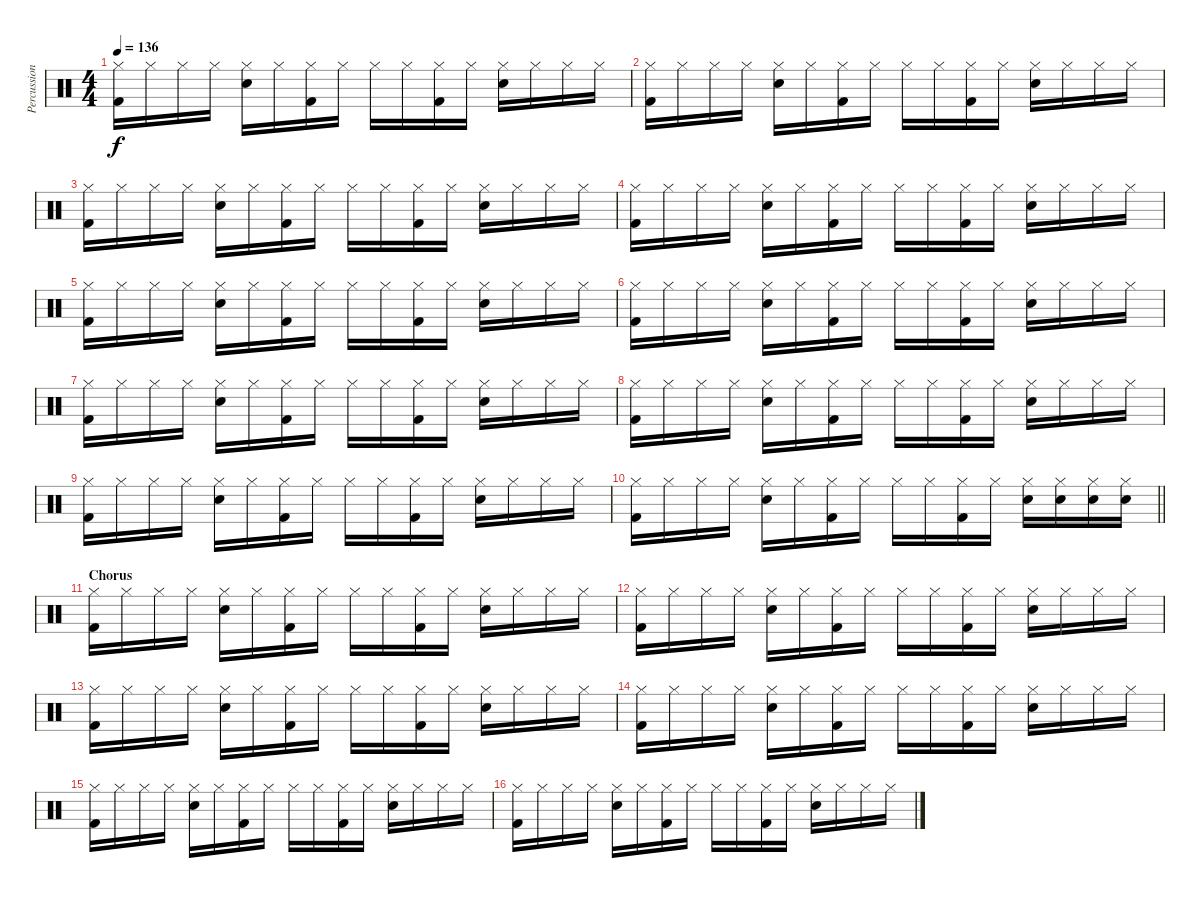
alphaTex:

\track ("Percussion" "Percussion") {instrument percussion}
\staff {score}
\articulation defaults
\ts (4 4)
\tempo 136
\clef neutral
\ks c
("Hi-Hat (closed)" "Kick (hit) 2").16{dy f} "Hi-Hat (closed)".16 "Hi-Hat (closed)".16 "Hi-Hat (closed)".16 ("Hi-Hat (closed)" "Electric Snare (hit)").16 "Hi-Hat (closed)".16 ("Hi-Hat (closed)" "Kick (hit) 2").16 "Hi-Hat (closed)".16 "Hi-Hat (closed)".16 "Hi-Hat (closed)".16 ("Hi-Hat (closed)" "Kick (hit) 2").16 "Hi-Hat (closed)".16 ("Hi-Hat (closed)" "Electric Snare (hit)").16 "Hi-Hat (closed)".16 "Hi-Hat (closed)".16 "Hi-Hat (closed)".16 |
("Hi-Hat (closed)" "Kick (hit) 2").16 "Hi-Hat (closed)".16 "Hi-Hat (closed)".16 "Hi-Hat (closed)".16 ("Hi-Hat (closed)" "Electric Snare (hit)").16 "Hi-Hat (closed)".16 ("Hi-Hat (closed)" "Kick (hit) 2").16 "Hi-Hat (closed)".16 "Hi-Hat (closed)".16 "Hi-Hat (closed)".16 ("Hi-Hat (closed)" "Kick (hit) 2").16 "Hi-Hat (closed)".16 ("Hi-Hat (closed)" "Electric Snare (hit)").16 "Hi-Hat (closed)".16 "Hi-Hat (closed)".16 "Hi-Hat (closed)".16 |
("Hi-Hat (closed)" "Kick (hit) 2").16 "Hi-Hat (closed)".16 "Hi-Hat (closed)".16 "Hi-Hat (closed)".16 ("Hi-Hat (closed)" "Electric Snare (hit)").16 "Hi-Hat (closed)".16 ("Hi-Hat (closed)" "Kick (hit) 2").16 "Hi-Hat (closed)".16 "Hi-Hat (closed)".16 "Hi-Hat (closed)".16 ("Hi-Hat (closed)" "Kick (hit) 2").16 "Hi-Hat (closed)".16 ("Hi-Hat (closed)" "Electric Snare (hit)").16 "Hi-Hat (closed)".16 "Hi-Hat (closed)".16 "Hi-Hat (closed)".16 |
("Hi-Hat (closed)" "Kick (hit) 2").16 "Hi-Hat (closed)".16 "Hi-Hat (closed)".16 "Hi-Hat (closed)".16 ("Hi-Hat (closed)" "Electric Snare (hit)").16 "Hi-Hat (closed)".16 ("Hi-Hat (closed)" "Kick (hit) 2").16 "Hi-Hat (closed)".16 "Hi-Hat (closed)".16 "Hi-Hat (closed)".16 ("Hi-Hat (closed)" "Kick (hit) 2").16 "Hi-Hat (closed)".16 ("Hi-Hat (closed)" "Electric Snare (hit)").16 "Hi-Hat (closed)".16 "Hi-Hat (closed)".16 "Hi-Hat (closed)".16 |
("Hi-Hat (closed)" "Kick (hit) 2").16 "Hi-Hat (closed)".16 "Hi-Hat (closed)".16 "Hi-Hat (closed)".16 ("Hi-Hat (closed)" "Electric Snare (hit)").16 "Hi-Hat (closed)".16 ("Hi-Hat (closed)" "Kick (hit) 2").16 "Hi-Hat (closed)".16 "Hi-Hat (closed)".16 "Hi-Hat (closed)".16 ("Hi-Hat (closed)" "Kick (hit) 2").16 "Hi-Hat (closed)".16 ("Hi-Hat (closed)" "Electric Snare (hit)").16 "Hi-Hat (closed)".16 "Hi-Hat (closed)".16 "Hi-Hat (closed)".16 |
("Hi-Hat (closed)" "Kick (hit) 2").16 "Hi-Hat (closed)".16 "Hi-Hat (closed)".16 "Hi-Hat (closed)".16 ("Hi-Hat (closed)" "Electric Snare (hit)").16 "Hi-Hat (closed)".16 ("Hi-Hat (closed)" "Kick (hit) 2").16 "Hi-Hat (closed)".16 "Hi-Hat (closed)".16 "Hi-Hat (closed)".16 ("Hi-Hat (closed)" "Kick (hit) 2").16 "Hi-Hat (closed)".16 ("Hi-Hat (closed)" "Electric Snare (hit)").16 "Hi-Hat (closed)".16 "Hi-Hat (closed)".16 "Hi-Hat (closed)".16 |
("Hi-Hat (closed)" "Kick (hit) 2").16 "Hi-Hat (closed)".16 "Hi-Hat (closed)".16 "Hi-Hat (closed)".16 ("Hi-Hat (closed)" "Electric Snare (hit)").16 "Hi-Hat (closed)".16 ("Hi-Hat (closed)" "Kick (hit) 2").16 "Hi-Hat (closed)".16 "Hi-Hat (closed)".16 "Hi-Hat (closed)".16 ("Hi-Hat (closed)" "Kick (hit) 2").16 "Hi-Hat (closed)".16 ("Hi-Hat (closed)" "Electric Snare (hit)").16 "Hi-Hat (closed)".16 "Hi-Hat (closed)".16 "Hi-Hat (closed)".16 |
("Hi-Hat (closed)" "Kick (hit) 2").16 "Hi-Hat (closed)".16 "Hi-Hat (closed)".16 "Hi-Hat (closed)".16 ("Hi-Hat (closed)" "Electric Snare (hit)").16 "Hi-Hat (closed)".16 ("Hi-Hat (closed)" "Kick (hit) 2").16 "Hi-Hat (closed)".16 "Hi-Hat (closed)".16 "Hi-Hat (closed)".16 ("Hi-Hat (closed)" "Kick (hit) 2").16 "Hi-Hat (closed)".16 ("Hi-Hat (closed)" "Electric Snare (hit)").16 "Hi-Hat (closed)".16 "Hi-Hat (closed)".16 "Hi-Hat (closed)".16 |
("Hi-Hat (closed)" "Kick (hit) 2").16 "Hi-Hat (closed)".16 "Hi-Hat (closed)".16 "Hi-Hat (closed)".16 ("Hi-Hat (closed)" "Electric Snare (hit)").16 "Hi-Hat (closed)".16 ("Hi-Hat (closed)" "Kick (hit) 2").16 "Hi-Hat (closed)".16 "Hi-Hat (closed)".16 "Hi-Hat (closed)".16 ("Hi-Hat (closed)" "Kick (hit) 2").16 "Hi-Hat (closed)".16 ("Hi-Hat (closed)" "Electric Snare (hit)").16 "Hi-Hat (closed)".16 "Hi-Hat (closed)".16 "Hi-Hat (closed)".16 |
\barLineRight lightlight
("Hi-Hat (closed)" "Kick (hit) 2").16 "Hi-Hat (closed)".16 "Hi-Hat (closed)".16 "Hi-Hat (closed)".16 ("Hi-Hat (closed)" "Electric Snare (hit)").16 "Hi-Hat (closed)".16 ("Hi-Hat (closed)" "Kick (hit) 2").16 "Hi-Hat (closed)".16 "Hi-Hat (closed)".16 "Hi-Hat (closed)".16 ("Hi-Hat (closed)" "Kick (hit) 2").16 "Hi-Hat (closed)".16 ("Hi-Hat (closed)" "Electric Snare (hit)").16 ("Hi-Hat (closed)" "Electric Snare (hit)").16 ("Hi-Hat (closed)" "Electric Snare (hit)").16 ("Hi-Hat (closed)" "Electric Snare (hit)").16 |
\section ("" "Chorus")
("Hi-Hat (closed)" "Kick (hit) 2").16 "Hi-Hat (closed)".16 "Hi-Hat (closed)".16 "Hi-Hat (closed)".16 ("Hi-Hat (closed)" "Electric Snare (hit)").16 "Hi-Hat (closed)".16 ("Hi-Hat (closed)" "Kick (hit) 2").16 "Hi-Hat (closed)".16 "Hi-Hat (closed)".16 "Hi-Hat (closed)".16 ("Hi-Hat (closed)" "Kick (hit) 2").16 "Hi-Hat (closed)".16 ("Hi-Hat (closed)" "Electric Snare (hit)").16 "Hi-Hat (closed)".16 "Hi-Hat (closed)".16 "Hi-Hat (closed)".16 |
("Hi-Hat (closed)" "Kick (hit) 2").16 "Hi-Hat (closed)".16 "Hi-Hat (closed)".16 "Hi-Hat (closed)".16 ("Hi-Hat (closed)" "Electric Snare (hit)").16 "Hi-Hat (closed)".16 ("Hi-Hat (closed)" "Kick (hit) 2").16 "Hi-Hat (closed)".16 "Hi-Hat (closed)".16 "Hi-Hat (closed)".16 ("Hi-Hat (closed)" "Kick (hit) 2").16 "Hi-Hat (closed)".16 ("Hi-Hat (closed)" "Electric Snare (hit)").16 "Hi-Hat (closed)".16 "Hi-Hat (closed)".16 "Hi-Hat (closed)".16 |
("Hi-Hat (closed)" "Kick (hit) 2").16 "Hi-Hat (closed)".16 "Hi-Hat (closed)".16 "Hi-Hat (closed)".16 ("Hi-Hat (closed)" "Electric Snare (hit)").16 "Hi-Hat (closed)".16 ("Hi-Hat (closed)" "Kick (hit) 2").16 "Hi-Hat (closed)".16 "Hi-Hat (closed)".16 "Hi-Hat (closed)".16 ("Hi-Hat (closed)" "Kick (hit) 2").16 "Hi-Hat (closed)".16 ("Hi-Hat (closed)" "Electric Snare (hit)").16 "Hi-Hat (closed)".16 "Hi-Hat (closed)".16 "Hi-Hat (closed)".16 |
("Hi-Hat (closed)" "Kick (hit) 2").16 "Hi-Hat (closed)".16 "Hi-Hat (closed)".16 "Hi-Hat (closed)".16 ("Hi-Hat (closed)" "Electric Snare (hit)").16 "Hi-Hat (closed)".16 ("Hi-Hat (closed)" "Kick (hit) 2").16 "Hi-Hat (closed)".16 "Hi-Hat (closed)".16 "Hi-Hat (closed)".16 ("Hi-Hat (closed)" "Kick (hit) 2").16 "Hi-Hat (closed)".16 ("Hi-Hat (closed)" "Electric Snare (hit)").16 "Hi-Hat (closed)".16 "Hi-Hat (closed)".16 "Hi-Hat (closed)".16 |
("Hi-Hat (closed)" "Kick (hit) 2").16 "Hi-Hat (closed)".16 "Hi-Hat (closed)".16 "Hi-Hat (closed)".16 ("Hi-Hat (closed)" "Electric Snare (hit)").16 "Hi-Hat (closed)".16 ("Hi-Hat (closed)" "Kick (hit) 2").16 "Hi-Hat (closed)".16 "Hi-Hat (closed)".16 "Hi-Hat (closed)".16 ("Hi-Hat (closed)" "Kick (hit) 2").16 "Hi-Hat (closed)".16 ("Hi-Hat (closed)" "Electric Snare (hit)").16 "Hi-Hat (closed)".16 "Hi-Hat (closed)".16 "Hi-Hat (closed)".16 |
("Hi-Hat (closed)" "Kick (hit) 2").16 "Hi-Hat (closed)".16 "Hi-Hat (closed)".16 "Hi-Hat (closed)".16 ("Hi-Hat (closed)" "Electric Snare (hit)").16 "Hi-Hat (closed)".16 ("Hi-Hat (closed)" "Kick (hit) 2").16 "Hi-Hat (closed)".16 "Hi-Hat (closed)".16 "Hi-Hat (closed)".16 ("Hi-Hat (closed)" "Kick (hit) 2").16 "Hi-Hat (closed)".16 ("Hi-Hat (closed)" "Electric Snare (hit)").16 "Hi-Hat (closed)".16 "Hi-Hat (closed)".16 "Hi-Hat (closed)".16
